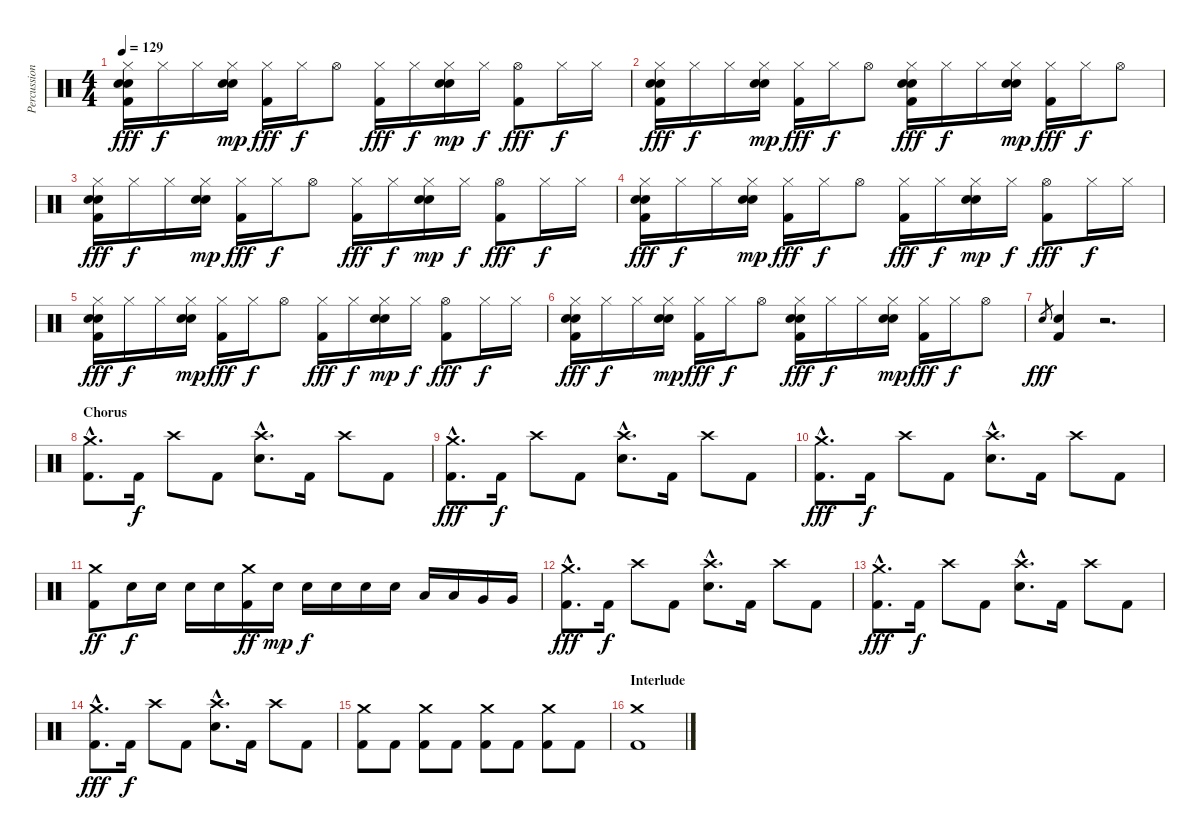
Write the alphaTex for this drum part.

\track ("Percussions" "Percussion") {instrument percussion}
\staff {score}
\articulation defaults
\ts (4 4)
\tempo 129
\clef neutral
\ks c
("Hi-Hat (closed)" "Snare (hit) 2" "Electric Snare (hit)" "Kick (hit) 2").16{dy fff} "Hi-Hat (closed)".16{dy f} "Hi-Hat (closed)".16 ("Hi-Hat (closed)" "Snare (hit) 2" "Electric Snare (hit)").16{dy mp} ("Hi-Hat (closed)" "Kick (hit) 2").16{dy fff} "Hi-Hat (closed)".16{dy f} "Hi-Hat (open)".8 ("Hi-Hat (closed)" "Kick (hit) 2").16{dy fff} "Hi-Hat (closed)".16{dy f} ("Hi-Hat (closed)" "Snare (hit) 2" "Electric Snare (hit)").16{dy mp} "Hi-Hat (closed)".16{dy f} ("Hi-Hat (open)" "Kick (hit) 2").8{dy fff} "Hi-Hat (closed)".16{dy f} "Hi-Hat (closed)".16 |
("Hi-Hat (closed)" "Snare (hit) 2" "Electric Snare (hit)" "Kick (hit) 2").16{dy fff} "Hi-Hat (closed)".16{dy f} "Hi-Hat (closed)".16 ("Hi-Hat (closed)" "Snare (hit) 2" "Electric Snare (hit)").16{dy mp} ("Hi-Hat (closed)" "Kick (hit) 2").16{dy fff} "Hi-Hat (closed)".16{dy f} "Hi-Hat (open)".8 ("Hi-Hat (closed)" "Snare (hit) 2" "Electric Snare (hit)" "Kick (hit) 2").16{dy fff} "Hi-Hat (closed)".16{dy f} "Hi-Hat (closed)".16 ("Hi-Hat (closed)" "Snare (hit) 2" "Electric Snare (hit)").16{dy mp} ("Hi-Hat (closed)" "Kick (hit) 2").16{dy fff} "Hi-Hat (closed)".16{dy f} "Hi-Hat (open)".8 |
("Hi-Hat (closed)" "Snare (hit) 2" "Electric Snare (hit)" "Kick (hit) 2").16{dy fff} "Hi-Hat (closed)".16{dy f} "Hi-Hat (closed)".16 ("Hi-Hat (closed)" "Snare (hit) 2" "Electric Snare (hit)").16{dy mp} ("Hi-Hat (closed)" "Kick (hit) 2").16{dy fff} "Hi-Hat (closed)".16{dy f} "Hi-Hat (open)".8 ("Hi-Hat (closed)" "Kick (hit) 2").16{dy fff} "Hi-Hat (closed)".16{dy f} ("Hi-Hat (closed)" "Snare (hit) 2" "Electric Snare (hit)").16{dy mp} "Hi-Hat (closed)".16{dy f} ("Hi-Hat (open)" "Kick (hit) 2").8{dy fff} "Hi-Hat (closed)".16{dy f} "Hi-Hat (closed)".16 |
("Hi-Hat (closed)" "Snare (hit) 2" "Electric Snare (hit)" "Kick (hit) 2").16{dy fff} "Hi-Hat (closed)".16{dy f} "Hi-Hat (closed)".16 ("Hi-Hat (closed)" "Snare (hit) 2" "Electric Snare (hit)").16{dy mp} ("Hi-Hat (closed)" "Kick (hit) 2").16{dy fff} "Hi-Hat (closed)".16{dy f} "Hi-Hat (open)".8 ("Hi-Hat (closed)" "Kick (hit) 2").16{dy fff} "Hi-Hat (closed)".16{dy f} ("Hi-Hat (closed)" "Snare (hit) 2" "Electric Snare (hit)").16{dy mp} "Hi-Hat (closed)".16{dy f} ("Hi-Hat (open)" "Kick (hit) 2").8{dy fff} "Hi-Hat (closed)".16{dy f} "Hi-Hat (closed)".16 |
("Hi-Hat (closed)" "Snare (hit) 2" "Electric Snare (hit)" "Kick (hit) 2").16{dy fff} "Hi-Hat (closed)".16{dy f} "Hi-Hat (closed)".16 ("Hi-Hat (closed)" "Snare (hit) 2" "Electric Snare (hit)").16{dy mp} ("Hi-Hat (closed)" "Kick (hit) 2").16{dy fff} "Hi-Hat (closed)".16{dy f} "Hi-Hat (open)".8 ("Hi-Hat (closed)" "Kick (hit) 2").16{dy fff} "Hi-Hat (closed)".16{dy f} ("Hi-Hat (closed)" "Snare (hit) 2" "Electric Snare (hit)").16{dy mp} "Hi-Hat (closed)".16{dy f} ("Hi-Hat (open)" "Kick (hit) 2").8{dy fff} "Hi-Hat (closed)".16{dy f} "Hi-Hat (closed)".16 |
("Hi-Hat (closed)" "Snare (hit) 2" "Electric Snare (hit)" "Kick (hit) 2").16{dy fff} "Hi-Hat (closed)".16{dy f} "Hi-Hat (closed)".16 ("Hi-Hat (closed)" "Snare (hit) 2" "Electric Snare (hit)").16{dy mp} ("Hi-Hat (closed)" "Kick (hit) 2").16{dy fff} "Hi-Hat (closed)".16{dy f} "Hi-Hat (open)".8 ("Hi-Hat (closed)" "Snare (hit) 2" "Electric Snare (hit)" "Kick (hit) 2").16{dy fff} "Hi-Hat (closed)".16{dy f} "Hi-Hat (closed)".16 ("Hi-Hat (closed)" "Snare (hit) 2" "Electric Snare (hit)").16{dy mp} ("Hi-Hat (closed)" "Kick (hit) 2").16{dy fff} "Hi-Hat (closed)".16{dy f} "Hi-Hat (open)".8 |
"Snare (hit) 2".8{gr dy fff} ("Snare (hit) 2" "Kick (hit) 2").4 r.2{d} |
\section ("" "Chorus")
("Crash medium (hit)"{hac} "Kick (hit) 2"{hac}).8{d} "Kick (hit) 2".16{dy f} "Crash high (hit)".8 "Kick (hit) 2".8 ("Crash high (hit)"{hac} "Snare (hit) 2"{hac}).8{d} "Kick (hit) 2".16 "Crash high (hit)".8 "Kick (hit) 2".8 |
("Crash medium (hit)"{hac} "Kick (hit) 2"{hac}).8{d dy fff} "Kick (hit) 2".16{dy f} "Crash high (hit)".8 "Kick (hit) 2".8 ("Crash high (hit)"{hac} "Snare (hit) 2"{hac}).8{d} "Kick (hit) 2".16 "Crash high (hit)".8 "Kick (hit) 2".8 |
("Crash medium (hit)"{hac} "Kick (hit) 2"{hac}).8{d dy fff} "Kick (hit) 2".16{dy f} "Crash high (hit)".8 "Kick (hit) 2".8 ("Crash high (hit)"{hac} "Snare (hit) 2"{hac}).8{d} "Kick (hit) 2".16 "Crash high (hit)".8 "Kick (hit) 2".8 |
("Crash medium (hit)" "Kick (hit) 2").8{dy ff} "Snare (hit) 2".16{dy f} "Snare (hit) 2".16 "Snare (hit) 2".16 "Snare (hit) 2".16 ("Crash medium (hit)" "Kick (hit) 2").16{dy ff} "Snare (hit) 2".16{dy mp} "Snare (hit) 2".16{dy f} "Snare (hit) 2".16 "Snare (hit) 2".16 "Snare (hit) 2".16 "Low Tom (hit)".16 "Low Tom (hit)".16 "Very Low Tom (hit)".16 "Very Low Tom (hit)".16 |
("Crash medium (hit)"{hac} "Kick (hit) 2"{hac}).8{d dy fff} "Kick (hit) 2".16{dy f} "Crash high (hit)".8 "Kick (hit) 2".8 ("Crash high (hit)"{hac} "Snare (hit) 2"{hac}).8{d} "Kick (hit) 2".16 "Crash high (hit)".8 "Kick (hit) 2".8 |
("Crash medium (hit)"{hac} "Kick (hit) 2"{hac}).8{d dy fff} "Kick (hit) 2".16{dy f} "Crash high (hit)".8 "Kick (hit) 2".8 ("Crash high (hit)"{hac} "Snare (hit) 2"{hac}).8{d} "Kick (hit) 2".16 "Crash high (hit)".8 "Kick (hit) 2".8 |
("Crash medium (hit)"{hac} "Kick (hit) 2"{hac}).8{d dy fff} "Kick (hit) 2".16{dy f} "Crash high (hit)".8 "Kick (hit) 2".8 ("Crash high (hit)"{hac} "Snare (hit) 2"{hac}).8{d} "Kick (hit) 2".16 "Crash high (hit)".8 "Kick (hit) 2".8 |
("Crash medium (hit)" "Kick (hit) 2").8 "Kick (hit) 2".8 ("Crash medium (hit)" "Kick (hit) 2").8 "Kick (hit) 2".8 ("Crash medium (hit)" "Kick (hit) 2").8 "Kick (hit) 2".8 ("Crash medium (hit)" "Kick (hit) 2").8 "Kick (hit) 2".8 |
\section ("" "Interlude")
("Crash medium (hit)" "Kick (hit) 2").1
